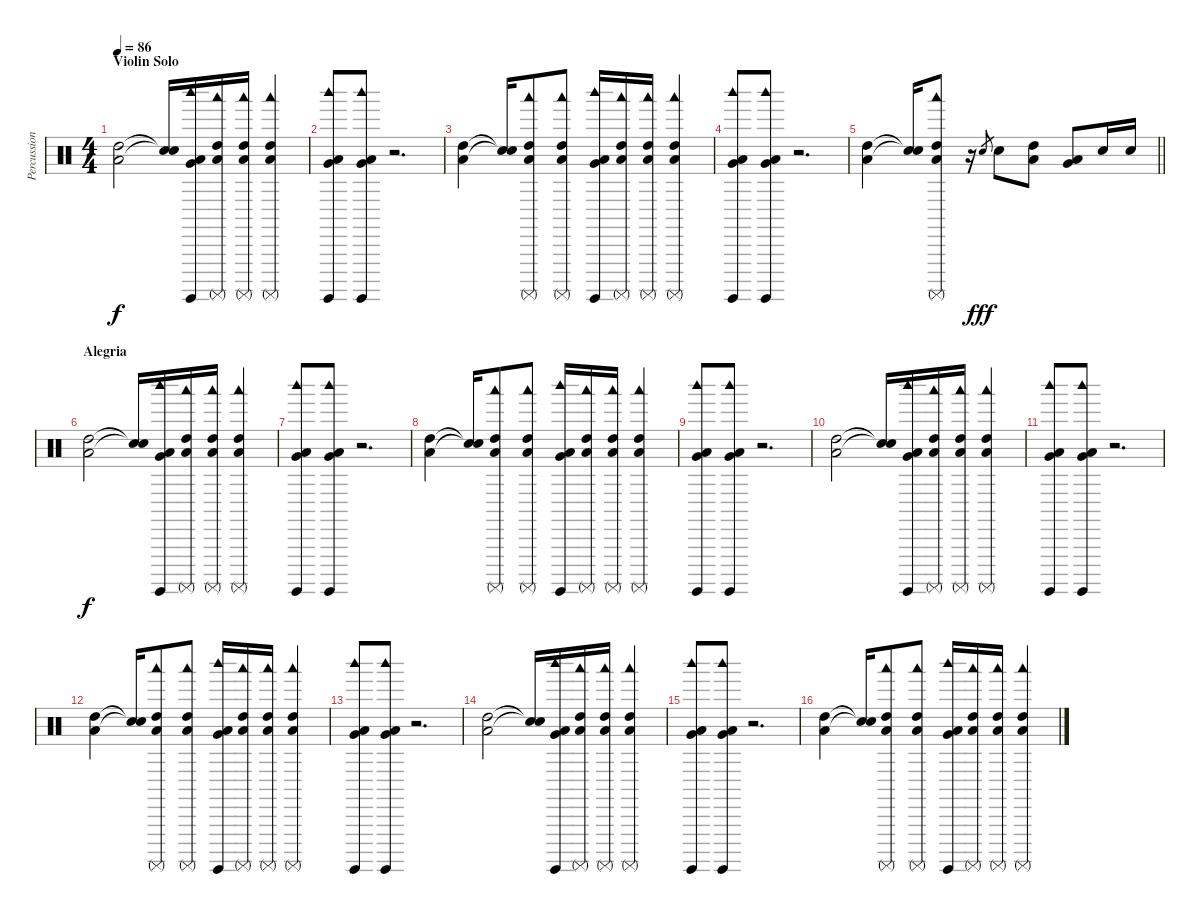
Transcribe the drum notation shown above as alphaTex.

\track ("Percussion 2" "Percussion") {instrument percussion}
\staff {score}
\articulation defaults
\ts (4 4)
\section ("" "Violin Solo")
\tempo 86
\clef neutral
\ks c
("High Tom (hit)" "Low Tom (hit)").2{dy f} ("Snare (hit)"{t} "Snare (hit)"{t}).16 ("Low Tom (hit)" "Woodblock high (hit)" "Surdo (hit)" "Very Low Tom (hit)").16 ("High Tom (hit)" "Woodblock low (hit)" "Surdo (mute)" "Low Tom (hit)").16 ("High Tom (hit)" "Woodblock low (hit)" "Surdo (mute)" "Low Tom (hit)").16 ("High Tom (hit)" "Woodblock low (hit)" "Surdo (mute)" "Low Tom (hit)").4 |
("Low Tom (hit)" "Woodblock high (hit)" "Surdo (hit)" "Very Low Tom (hit)").8 ("Low Tom (hit)" "Woodblock high (hit)" "Surdo (hit)" "Very Low Tom (hit)").8 r.2{d} |
("High Tom (hit)" "Low Tom (hit)").4 ("Snare (hit)"{t} "Snare (hit)"{t}).16 ("High Tom (hit)" "Woodblock low (hit)" "Surdo (mute)" "Low Tom (hit)").8 ("High Tom (hit)" "Woodblock low (hit)" "Surdo (mute)" "Low Tom (hit)").8 ("Low Tom (hit)" "Woodblock high (hit)" "Surdo (hit)" "Very Low Tom (hit)").16 ("High Tom (hit)" "Woodblock low (hit)" "Surdo (mute)" "Low Tom (hit)").16 ("High Tom (hit)" "Woodblock low (hit)" "Surdo (mute)" "Low Tom (hit)").16 ("High Tom (hit)" "Woodblock low (hit)" "Surdo (mute)" "Low Tom (hit)").4 |
("Low Tom (hit)" "Woodblock high (hit)" "Surdo (hit)" "Very Low Tom (hit)").8 ("Low Tom (hit)" "Woodblock high (hit)" "Surdo (hit)" "Very Low Tom (hit)").8 r.2{d} |
\barLineRight lightlight
("High Tom (hit)" "Low Tom (hit)").4 ("Snare (hit)"{t} "Snare (hit)"{t}).16 ("High Tom (hit)" "Woodblock low (hit)" "Surdo (mute)" "Low Tom (hit)").8 r.16 "Electric Snare (hit)".8{gr dy fff} "Electric Snare (hit)".8 ("Low Tom (hit)" "High Tom (hit)").8 ("Very Low Tom (hit)" "Low Tom (hit)").8 "Electric Snare (hit)".16 "Electric Snare (hit)".16 |
\section ("" "Alegria")
("High Tom (hit)" "Low Tom (hit)").2{dy f} ("Snare (hit)"{t} "Snare (hit)"{t}).16 ("Low Tom (hit)" "Woodblock high (hit)" "Surdo (hit)" "Very Low Tom (hit)").16 ("High Tom (hit)" "Woodblock low (hit)" "Surdo (mute)" "Low Tom (hit)").16 ("High Tom (hit)" "Woodblock low (hit)" "Surdo (mute)" "Low Tom (hit)").16 ("High Tom (hit)" "Woodblock low (hit)" "Surdo (mute)" "Low Tom (hit)").4 |
("Low Tom (hit)" "Woodblock high (hit)" "Surdo (hit)" "Very Low Tom (hit)").8 ("Low Tom (hit)" "Woodblock high (hit)" "Surdo (hit)" "Very Low Tom (hit)").8 r.2{d} |
("High Tom (hit)" "Low Tom (hit)").4 ("Snare (hit)"{t} "Snare (hit)"{t}).16 ("High Tom (hit)" "Woodblock low (hit)" "Surdo (mute)" "Low Tom (hit)").8 ("High Tom (hit)" "Woodblock low (hit)" "Surdo (mute)" "Low Tom (hit)").8 ("Low Tom (hit)" "Woodblock high (hit)" "Surdo (hit)" "Very Low Tom (hit)").16 ("High Tom (hit)" "Woodblock low (hit)" "Surdo (mute)" "Low Tom (hit)").16 ("High Tom (hit)" "Woodblock low (hit)" "Surdo (mute)" "Low Tom (hit)").16 ("High Tom (hit)" "Woodblock low (hit)" "Surdo (mute)" "Low Tom (hit)").4 |
("Low Tom (hit)" "Woodblock high (hit)" "Surdo (hit)" "Very Low Tom (hit)").8 ("Low Tom (hit)" "Woodblock high (hit)" "Surdo (hit)" "Very Low Tom (hit)").8 r.2{d} |
("High Tom (hit)" "Low Tom (hit)").2 ("Snare (hit)"{t} "Snare (hit)"{t}).16 ("Low Tom (hit)" "Woodblock high (hit)" "Surdo (hit)" "Very Low Tom (hit)").16 ("High Tom (hit)" "Woodblock low (hit)" "Surdo (mute)" "Low Tom (hit)").16 ("High Tom (hit)" "Woodblock low (hit)" "Surdo (mute)" "Low Tom (hit)").16 ("High Tom (hit)" "Woodblock low (hit)" "Surdo (mute)" "Low Tom (hit)").4 |
("Low Tom (hit)" "Woodblock high (hit)" "Surdo (hit)" "Very Low Tom (hit)").8 ("Low Tom (hit)" "Woodblock high (hit)" "Surdo (hit)" "Very Low Tom (hit)").8 r.2{d} |
("High Tom (hit)" "Low Tom (hit)").4 ("Snare (hit)"{t} "Snare (hit)"{t}).16 ("High Tom (hit)" "Woodblock low (hit)" "Surdo (mute)" "Low Tom (hit)").8 ("High Tom (hit)" "Woodblock low (hit)" "Surdo (mute)" "Low Tom (hit)").8 ("Low Tom (hit)" "Woodblock high (hit)" "Surdo (hit)" "Very Low Tom (hit)").16 ("High Tom (hit)" "Woodblock low (hit)" "Surdo (mute)" "Low Tom (hit)").16 ("High Tom (hit)" "Woodblock low (hit)" "Surdo (mute)" "Low Tom (hit)").16 ("High Tom (hit)" "Woodblock low (hit)" "Surdo (mute)" "Low Tom (hit)").4 |
("Low Tom (hit)" "Woodblock high (hit)" "Surdo (hit)" "Very Low Tom (hit)").8 ("Low Tom (hit)" "Woodblock high (hit)" "Surdo (hit)" "Very Low Tom (hit)").8 r.2{d} |
("High Tom (hit)" "Low Tom (hit)").2 ("Snare (hit)"{t} "Snare (hit)"{t}).16 ("Low Tom (hit)" "Woodblock high (hit)" "Surdo (hit)" "Very Low Tom (hit)").16 ("High Tom (hit)" "Woodblock low (hit)" "Surdo (mute)" "Low Tom (hit)").16 ("High Tom (hit)" "Woodblock low (hit)" "Surdo (mute)" "Low Tom (hit)").16 ("High Tom (hit)" "Woodblock low (hit)" "Surdo (mute)" "Low Tom (hit)").4 |
("Low Tom (hit)" "Woodblock high (hit)" "Surdo (hit)" "Very Low Tom (hit)").8 ("Low Tom (hit)" "Woodblock high (hit)" "Surdo (hit)" "Very Low Tom (hit)").8 r.2{d} |
("High Tom (hit)" "Low Tom (hit)").4 ("Snare (hit)"{t} "Snare (hit)"{t}).16 ("High Tom (hit)" "Woodblock low (hit)" "Surdo (mute)" "Low Tom (hit)").8 ("High Tom (hit)" "Woodblock low (hit)" "Surdo (mute)" "Low Tom (hit)").8 ("Low Tom (hit)" "Woodblock high (hit)" "Surdo (hit)" "Very Low Tom (hit)").16 ("High Tom (hit)" "Woodblock low (hit)" "Surdo (mute)" "Low Tom (hit)").16 ("High Tom (hit)" "Woodblock low (hit)" "Surdo (mute)" "Low Tom (hit)").16 ("High Tom (hit)" "Woodblock low (hit)" "Surdo (mute)" "Low Tom (hit)").4
